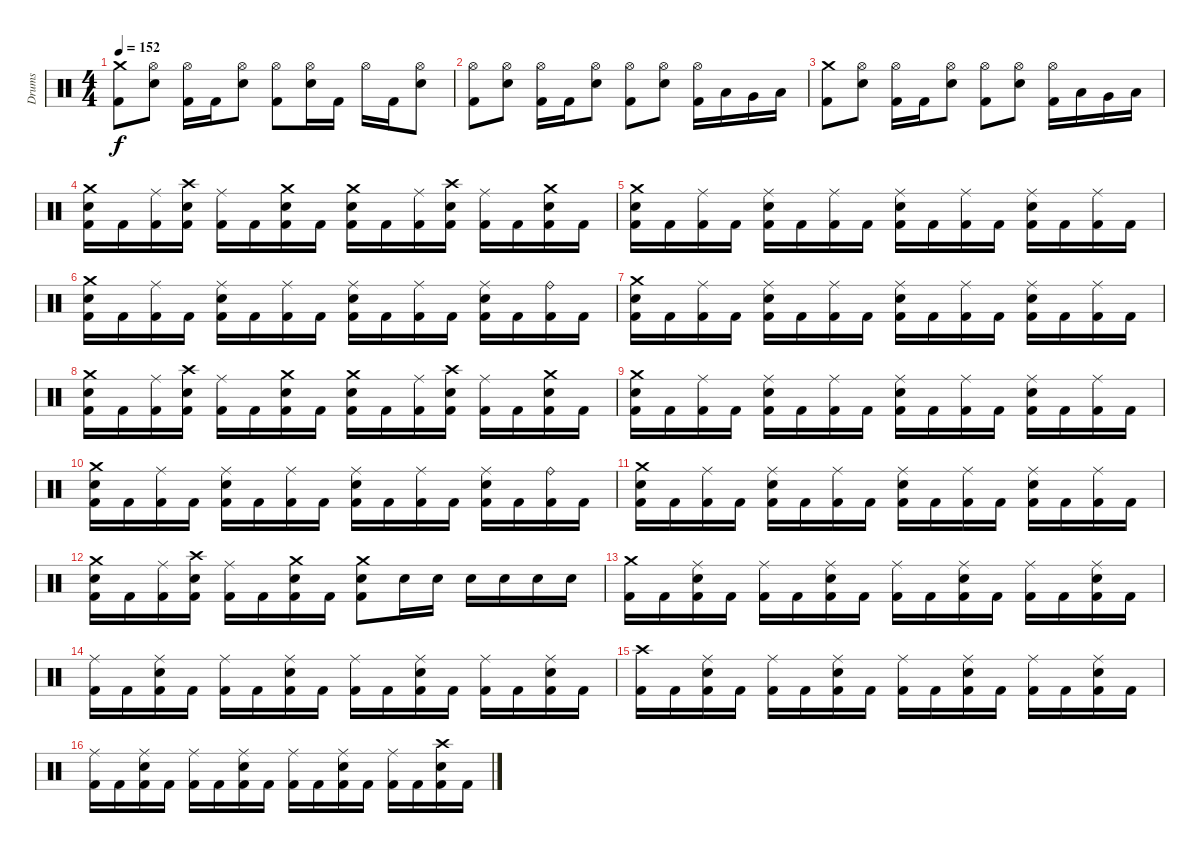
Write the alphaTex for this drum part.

\track ("Drums" "Drums") {instrument percussion}
\staff {score}
\articulation defaults
\ts (4 4)
\tempo 152
\clef neutral
\ks c
("Crash medium (hit)" "Kick (hit) 2").8{dy f} ("Hi-Hat (open)" "Snare (hit) 2").8 ("Hi-Hat (open)" "Kick (hit) 2").16 "Kick (hit) 2".16 ("Hi-Hat (open)" "Snare (hit) 2").8 ("Hi-Hat (open)" "Kick (hit) 2").8 ("Hi-Hat (open)" "Snare (hit) 2").16 "Kick (hit) 2".16 "Hi-Hat (open)".16 "Kick (hit) 2".16 ("Hi-Hat (open)" "Snare (hit) 2").8 |
("Hi-Hat (open)" "Kick (hit) 2").8 ("Hi-Hat (open)" "Snare (hit) 2").8 ("Hi-Hat (open)" "Kick (hit) 2").16 "Kick (hit) 2".16 ("Hi-Hat (open)" "Snare (hit) 2").8 ("Hi-Hat (open)" "Kick (hit) 2").8 ("Hi-Hat (open)" "Snare (hit) 2").8 ("Hi-Hat (open)" "Kick (hit) 2").16 "Low Tom (hit)".16 "Very Low Tom (hit)".16 "Low Floor Tom (hit)".16 |
("Crash medium (hit)" "Kick (hit) 2").8 ("Hi-Hat (open)" "Snare (hit) 2").8 ("Hi-Hat (open)" "Kick (hit) 2").16 "Kick (hit) 2".16 ("Hi-Hat (open)" "Snare (hit) 2").8 ("Hi-Hat (open)" "Kick (hit) 2").8 ("Hi-Hat (open)" "Snare (hit) 2").8 ("Hi-Hat (open)" "Kick (hit) 2").16 "Low Tom (hit)".16 "Very Low Tom (hit)".16 "Low Floor Tom (hit)".16 |
("Crash medium (hit)" "Snare (hit) 2" "Kick (hit) 2").16 "Kick (hit) 2".16 ("Ride (middle)" "Kick (hit) 2").16 ("Crash high (hit)" "Snare (hit) 2" "Kick (hit) 2").16 ("Ride (middle)" "Kick (hit) 2").16 "Kick (hit) 2".16 ("Crash medium (hit)" "Snare (hit) 2" "Kick (hit) 2").16 "Kick (hit) 2".16 ("Crash medium (hit)" "Snare (hit) 2" "Kick (hit) 2").16 "Kick (hit) 2".16 ("Ride (middle)" "Kick (hit) 2").16 ("Crash high (hit)" "Snare (hit) 2" "Kick (hit) 2").16 ("Ride (middle)" "Kick (hit) 2").16 "Kick (hit) 2".16 ("Crash medium (hit)" "Snare (hit) 2" "Kick (hit) 2").16 "Kick (hit) 2".16 |
("Crash medium (hit)" "Snare (hit) 2" "Kick (hit) 2").16 "Kick (hit) 2".16 ("Ride (middle)" "Kick (hit) 2").16 "Kick (hit) 2".16 ("Ride (middle)" "Snare (hit) 2" "Kick (hit) 2").16 "Kick (hit) 2".16 ("Ride (middle)" "Kick (hit) 2").16 "Kick (hit) 2".16 ("Ride (middle)" "Snare (hit) 2" "Kick (hit) 2").16 "Kick (hit) 2".16 ("Ride (middle)" "Kick (hit) 2").16 "Kick (hit) 2".16 ("Ride (middle)" "Snare (hit) 2" "Kick (hit) 2").16 "Kick (hit) 2".16 ("Ride (middle)" "Kick (hit) 2").16 "Kick (hit) 2".16 |
("Crash medium (hit)" "Snare (hit) 2" "Kick (hit) 2").16 "Kick (hit) 2".16 ("Ride (middle)" "Kick (hit) 2").16 "Kick (hit) 2".16 ("Ride (middle)" "Snare (hit) 2" "Kick (hit) 2").16 "Kick (hit) 2".16 ("Ride (middle)" "Kick (hit) 2").16 "Kick (hit) 2".16 ("Ride (middle)" "Snare (hit) 2" "Kick (hit) 2").16 "Kick (hit) 2".16 ("Ride (middle)" "Kick (hit) 2").16 "Kick (hit) 2".16 ("Ride (middle)" "Snare (hit) 2" "Kick (hit) 2").16 "Kick (hit) 2".16 ("Ride (bell)" "Kick (hit) 2").16 "Kick (hit) 2".16 |
("Crash medium (hit)" "Snare (hit) 2" "Kick (hit) 2").16 "Kick (hit) 2".16 ("Ride (middle)" "Kick (hit) 2").16 "Kick (hit) 2".16 ("Ride (middle)" "Snare (hit) 2" "Kick (hit) 2").16 "Kick (hit) 2".16 ("Ride (middle)" "Kick (hit) 2").16 "Kick (hit) 2".16 ("Ride (middle)" "Snare (hit) 2" "Kick (hit) 2").16 "Kick (hit) 2".16 ("Ride (middle)" "Kick (hit) 2").16 "Kick (hit) 2".16 ("Ride (middle)" "Snare (hit) 2" "Kick (hit) 2").16 "Kick (hit) 2".16 ("Ride (middle)" "Kick (hit) 2").16 "Kick (hit) 2".16 |
("Crash medium (hit)" "Snare (hit) 2" "Kick (hit) 2").16 "Kick (hit) 2".16 ("Ride (middle)" "Kick (hit) 2").16 ("Crash high (hit)" "Snare (hit) 2" "Kick (hit) 2").16 ("Ride (middle)" "Kick (hit) 2").16 "Kick (hit) 2".16 ("Crash medium (hit)" "Snare (hit) 2" "Kick (hit) 2").16 "Kick (hit) 2".16 ("Crash medium (hit)" "Snare (hit) 2" "Kick (hit) 2").16 "Kick (hit) 2".16 ("Ride (middle)" "Kick (hit) 2").16 ("Crash high (hit)" "Snare (hit) 2" "Kick (hit) 2").16 ("Ride (middle)" "Kick (hit) 2").16 "Kick (hit) 2".16 ("Crash medium (hit)" "Snare (hit) 2" "Kick (hit) 2").16 "Kick (hit) 2".16 |
("Crash medium (hit)" "Snare (hit) 2" "Kick (hit) 2").16 "Kick (hit) 2".16 ("Ride (middle)" "Kick (hit) 2").16 "Kick (hit) 2".16 ("Ride (middle)" "Snare (hit) 2" "Kick (hit) 2").16 "Kick (hit) 2".16 ("Ride (middle)" "Kick (hit) 2").16 "Kick (hit) 2".16 ("Ride (middle)" "Snare (hit) 2" "Kick (hit) 2").16 "Kick (hit) 2".16 ("Ride (middle)" "Kick (hit) 2").16 "Kick (hit) 2".16 ("Ride (middle)" "Snare (hit) 2" "Kick (hit) 2").16 "Kick (hit) 2".16 ("Ride (middle)" "Kick (hit) 2").16 "Kick (hit) 2".16 |
("Crash medium (hit)" "Snare (hit) 2" "Kick (hit) 2").16 "Kick (hit) 2".16 ("Ride (middle)" "Kick (hit) 2").16 "Kick (hit) 2".16 ("Ride (middle)" "Snare (hit) 2" "Kick (hit) 2").16 "Kick (hit) 2".16 ("Ride (middle)" "Kick (hit) 2").16 "Kick (hit) 2".16 ("Ride (middle)" "Snare (hit) 2" "Kick (hit) 2").16 "Kick (hit) 2".16 ("Ride (middle)" "Kick (hit) 2").16 "Kick (hit) 2".16 ("Ride (middle)" "Snare (hit) 2" "Kick (hit) 2").16 "Kick (hit) 2".16 ("Ride (bell)" "Kick (hit) 2").16 "Kick (hit) 2".16 |
("Crash medium (hit)" "Snare (hit) 2" "Kick (hit) 2").16 "Kick (hit) 2".16 ("Ride (middle)" "Kick (hit) 2").16 "Kick (hit) 2".16 ("Ride (middle)" "Snare (hit) 2" "Kick (hit) 2").16 "Kick (hit) 2".16 ("Ride (middle)" "Kick (hit) 2").16 "Kick (hit) 2".16 ("Ride (middle)" "Snare (hit) 2" "Kick (hit) 2").16 "Kick (hit) 2".16 ("Ride (middle)" "Kick (hit) 2").16 "Kick (hit) 2".16 ("Ride (middle)" "Snare (hit) 2" "Kick (hit) 2").16 "Kick (hit) 2".16 ("Ride (middle)" "Kick (hit) 2").16 "Kick (hit) 2".16 |
("Crash medium (hit)" "Snare (hit) 2" "Kick (hit) 2").16 "Kick (hit) 2".16 ("Ride (middle)" "Kick (hit) 2").16 ("Crash high (hit)" "Snare (hit) 2" "Kick (hit) 2").16 ("Ride (middle)" "Kick (hit) 2").16 "Kick (hit) 2".16 ("Crash medium (hit)" "Snare (hit) 2" "Kick (hit) 2").16 "Kick (hit) 2".16 ("Crash medium (hit)" "Snare (hit) 2" "Kick (hit) 2").8 "Snare (hit) 2".16 "Snare (hit) 2".16 "Snare (hit) 2".16 "Snare (hit) 2".16 "Snare (hit) 2".16 "Snare (hit) 2".16 |
("Crash medium (hit)" "Kick (hit) 2").16 "Kick (hit) 2".16 ("Ride (middle)" "Snare (hit) 2" "Kick (hit) 2").16 "Kick (hit) 2".16 ("Ride (middle)" "Kick (hit) 2").16 "Kick (hit) 2".16 ("Ride (middle)" "Snare (hit) 2" "Kick (hit) 2").16 "Kick (hit) 2".16 ("Ride (middle)" "Kick (hit) 2").16 "Kick (hit) 2".16 ("Ride (middle)" "Snare (hit) 2" "Kick (hit) 2").16 "Kick (hit) 2".16 ("Ride (middle)" "Kick (hit) 2").16 "Kick (hit) 2".16 ("Ride (middle)" "Snare (hit) 2" "Kick (hit) 2").16 "Kick (hit) 2".16 |
("Ride (middle)" "Kick (hit) 2").16 "Kick (hit) 2".16 ("Ride (middle)" "Snare (hit) 2" "Kick (hit) 2").16 "Kick (hit) 2".16 ("Ride (middle)" "Kick (hit) 2").16 "Kick (hit) 2".16 ("Ride (middle)" "Snare (hit) 2" "Kick (hit) 2").16 "Kick (hit) 2".16 ("Ride (middle)" "Kick (hit) 2").16 "Kick (hit) 2".16 ("Ride (middle)" "Snare (hit) 2" "Kick (hit) 2").16 "Kick (hit) 2".16 ("Ride (middle)" "Kick (hit) 2").16 "Kick (hit) 2".16 ("Ride (middle)" "Snare (hit) 2" "Kick (hit) 2").16 "Kick (hit) 2".16 |
("Crash high (hit)" "Kick (hit) 2").16 "Kick (hit) 2".16 ("Ride (middle)" "Snare (hit) 2" "Kick (hit) 2").16 "Kick (hit) 2".16 ("Ride (middle)" "Kick (hit) 2").16 "Kick (hit) 2".16 ("Ride (middle)" "Snare (hit) 2" "Kick (hit) 2").16 "Kick (hit) 2".16 ("Ride (middle)" "Kick (hit) 2").16 "Kick (hit) 2".16 ("Ride (middle)" "Snare (hit) 2" "Kick (hit) 2").16 "Kick (hit) 2".16 ("Ride (middle)" "Kick (hit) 2").16 "Kick (hit) 2".16 ("Ride (middle)" "Snare (hit) 2" "Kick (hit) 2").16 "Kick (hit) 2".16 |
("Ride (middle)" "Kick (hit) 2").16 "Kick (hit) 2".16 ("Ride (middle)" "Snare (hit) 2" "Kick (hit) 2").16 "Kick (hit) 2".16 ("Ride (middle)" "Kick (hit) 2").16 "Kick (hit) 2".16 ("Ride (middle)" "Snare (hit) 2" "Kick (hit) 2").16 "Kick (hit) 2".16 ("Ride (middle)" "Kick (hit) 2").16 "Kick (hit) 2".16 ("Ride (middle)" "Snare (hit) 2" "Kick (hit) 2").16 "Kick (hit) 2".16 ("Ride (middle)" "Kick (hit) 2").16 "Kick (hit) 2".16 ("Crash high (hit)" "Snare (hit) 2" "Kick (hit) 2").16 "Kick (hit) 2".16
